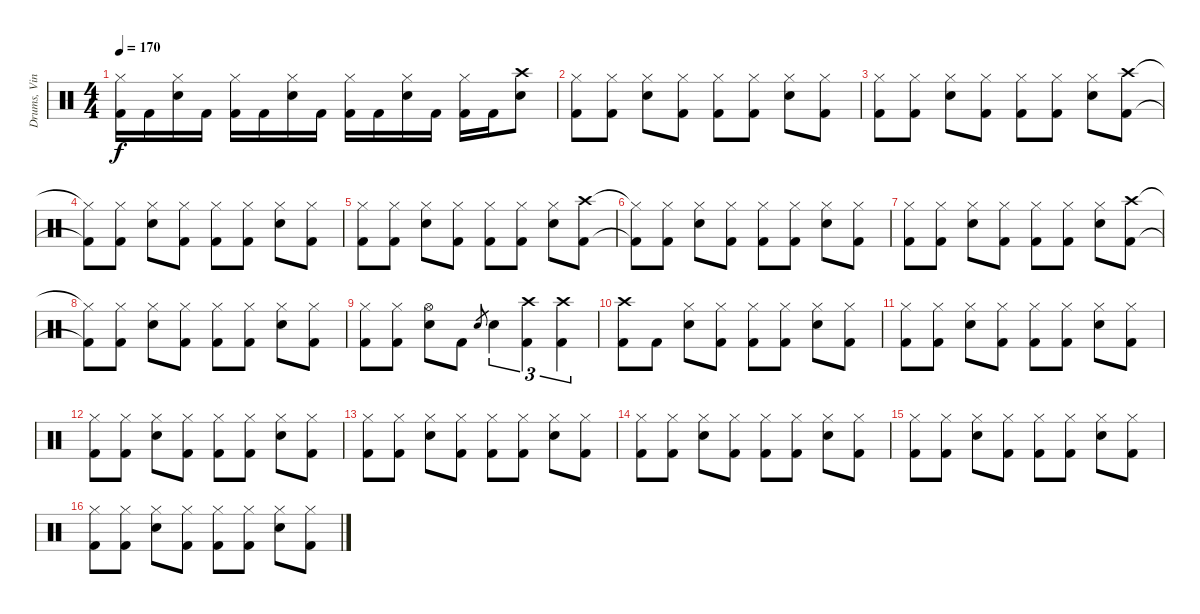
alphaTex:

\track ("Drums, Vinnie" "Drums, Vin") {instrument percussion}
\staff {score}
\articulation defaults
\ts (4 4)
\tempo 170
\clef neutral
\ks c
("Hi-Hat (closed)" "Kick (hit) 2").16{dy f} "Kick (hit) 2".16 ("Hi-Hat (closed)" "Electric Snare (hit)").16 "Kick (hit) 2".16 ("Hi-Hat (closed)" "Kick (hit) 2").16 "Kick (hit) 2".16 ("Hi-Hat (closed)" "Electric Snare (hit)").16 "Kick (hit) 2".16 ("Hi-Hat (closed)" "Kick (hit) 2").16 "Kick (hit) 2".16 ("Hi-Hat (closed)" "Electric Snare (hit)").16 "Kick (hit) 2".16 ("Hi-Hat (closed)" "Kick (hit) 2").16 "Kick (hit) 2".16 ("Crash high (hit)" "Electric Snare (hit)").8 |
("Hi-Hat (closed)" "Kick (hit) 2").8 ("Hi-Hat (closed)" "Kick (hit) 2").8 ("Hi-Hat (closed)" "Electric Snare (hit)").8 ("Hi-Hat (closed)" "Kick (hit) 2").8 ("Hi-Hat (closed)" "Kick (hit) 2").8 ("Hi-Hat (closed)" "Kick (hit) 2").8 ("Hi-Hat (closed)" "Electric Snare (hit)").8 ("Hi-Hat (closed)" "Kick (hit) 2").8 |
("Hi-Hat (closed)" "Kick (hit) 2").8 ("Hi-Hat (closed)" "Kick (hit) 2").8 ("Hi-Hat (closed)" "Electric Snare (hit)").8 ("Hi-Hat (closed)" "Kick (hit) 2").8 ("Hi-Hat (closed)" "Kick (hit) 2").8 ("Hi-Hat (closed)" "Kick (hit) 2").8 ("Hi-Hat (closed)" "Electric Snare (hit)").8 ("Crash high (hit)" "Kick (hit) 2").8 |
("Hi-Hat (closed)"{t} "Kick (hit) 2"{t}).8 ("Hi-Hat (closed)" "Kick (hit) 2").8 ("Hi-Hat (closed)" "Electric Snare (hit)").8 ("Hi-Hat (closed)" "Kick (hit) 2").8 ("Hi-Hat (closed)" "Kick (hit) 2").8 ("Hi-Hat (closed)" "Kick (hit) 2").8 ("Hi-Hat (closed)" "Electric Snare (hit)").8 ("Hi-Hat (closed)" "Kick (hit) 2").8 |
("Hi-Hat (closed)" "Kick (hit) 2").8 ("Hi-Hat (closed)" "Kick (hit) 2").8 ("Hi-Hat (closed)" "Electric Snare (hit)").8 ("Hi-Hat (closed)" "Kick (hit) 2").8 ("Hi-Hat (closed)" "Kick (hit) 2").8 ("Hi-Hat (closed)" "Kick (hit) 2").8 ("Hi-Hat (closed)" "Electric Snare (hit)").8 ("Crash high (hit)" "Kick (hit) 2").8 |
("Hi-Hat (closed)"{t} "Kick (hit) 2"{t}).8 ("Hi-Hat (closed)" "Kick (hit) 2").8 ("Hi-Hat (closed)" "Electric Snare (hit)").8 ("Hi-Hat (closed)" "Kick (hit) 2").8 ("Hi-Hat (closed)" "Kick (hit) 2").8 ("Hi-Hat (closed)" "Kick (hit) 2").8 ("Hi-Hat (closed)" "Electric Snare (hit)").8 ("Hi-Hat (closed)" "Kick (hit) 2").8 |
("Hi-Hat (closed)" "Kick (hit) 2").8 ("Hi-Hat (closed)" "Kick (hit) 2").8 ("Hi-Hat (closed)" "Electric Snare (hit)").8 ("Hi-Hat (closed)" "Kick (hit) 2").8 ("Hi-Hat (closed)" "Kick (hit) 2").8 ("Hi-Hat (closed)" "Kick (hit) 2").8 ("Hi-Hat (closed)" "Electric Snare (hit)").8 ("Crash high (hit)" "Kick (hit) 2").8 |
("Hi-Hat (closed)"{t} "Kick (hit) 2"{t}).8 ("Hi-Hat (closed)" "Kick (hit) 2").8 ("Hi-Hat (closed)" "Electric Snare (hit)").8 ("Hi-Hat (closed)" "Kick (hit) 2").8 ("Hi-Hat (closed)" "Kick (hit) 2").8 ("Hi-Hat (closed)" "Kick (hit) 2").8 ("Hi-Hat (closed)" "Electric Snare (hit)").8 ("Hi-Hat (closed)" "Kick (hit) 2").8 |
("Hi-Hat (closed)" "Kick (hit) 2").8 ("Hi-Hat (closed)" "Kick (hit) 2").8 ("Hi-Hat (open)" "Electric Snare (hit)").8 "Kick (hit) 2".8 "Electric Snare (hit)".8{gr} "Electric Snare (hit)".4{tu (3 2)} ("Crash high (hit)" "Kick (hit) 2").4{tu (3 2)} ("Crash high (hit)" "Kick (hit) 2").4{tu (3 2)} |
("Crash high (hit)" "Kick (hit) 2").8 "Kick (hit) 2".8 ("Hi-Hat (closed)" "Electric Snare (hit)").8 ("Hi-Hat (closed)" "Kick (hit) 2").8 ("Hi-Hat (closed)" "Kick (hit) 2").8 ("Hi-Hat (closed)" "Kick (hit) 2").8 ("Hi-Hat (closed)" "Electric Snare (hit)").8 ("Hi-Hat (closed)" "Kick (hit) 2").8 |
("Hi-Hat (closed)" "Kick (hit) 2").8 ("Hi-Hat (closed)" "Kick (hit) 2").8 ("Hi-Hat (closed)" "Electric Snare (hit)").8 ("Hi-Hat (closed)" "Kick (hit) 2").8 ("Hi-Hat (closed)" "Kick (hit) 2").8 ("Hi-Hat (closed)" "Kick (hit) 2").8 ("Hi-Hat (closed)" "Electric Snare (hit)").8 ("Hi-Hat (closed)" "Kick (hit) 2").8 |
("Hi-Hat (closed)" "Kick (hit) 2").8 ("Hi-Hat (closed)" "Kick (hit) 2").8 ("Hi-Hat (closed)" "Electric Snare (hit)").8 ("Hi-Hat (closed)" "Kick (hit) 2").8 ("Hi-Hat (closed)" "Kick (hit) 2").8 ("Hi-Hat (closed)" "Kick (hit) 2").8 ("Hi-Hat (closed)" "Electric Snare (hit)").8 ("Hi-Hat (closed)" "Kick (hit) 2").8 |
("Hi-Hat (closed)" "Kick (hit) 2").8 ("Hi-Hat (closed)" "Kick (hit) 2").8 ("Hi-Hat (closed)" "Electric Snare (hit)").8 ("Hi-Hat (closed)" "Kick (hit) 2").8 ("Hi-Hat (closed)" "Kick (hit) 2").8 ("Hi-Hat (closed)" "Kick (hit) 2").8 ("Hi-Hat (closed)" "Electric Snare (hit)").8 ("Hi-Hat (closed)" "Kick (hit) 2").8 |
("Hi-Hat (closed)" "Kick (hit) 2").8 ("Hi-Hat (closed)" "Kick (hit) 2").8 ("Hi-Hat (closed)" "Electric Snare (hit)").8 ("Hi-Hat (closed)" "Kick (hit) 2").8 ("Hi-Hat (closed)" "Kick (hit) 2").8 ("Hi-Hat (closed)" "Kick (hit) 2").8 ("Hi-Hat (closed)" "Electric Snare (hit)").8 ("Hi-Hat (closed)" "Kick (hit) 2").8 |
("Hi-Hat (closed)" "Kick (hit) 2").8 ("Hi-Hat (closed)" "Kick (hit) 2").8 ("Hi-Hat (closed)" "Electric Snare (hit)").8 ("Hi-Hat (closed)" "Kick (hit) 2").8 ("Hi-Hat (closed)" "Kick (hit) 2").8 ("Hi-Hat (closed)" "Kick (hit) 2").8 ("Hi-Hat (closed)" "Electric Snare (hit)").8 ("Hi-Hat (closed)" "Kick (hit) 2").8 |
("Hi-Hat (closed)" "Kick (hit) 2").8 ("Hi-Hat (closed)" "Kick (hit) 2").8 ("Hi-Hat (closed)" "Electric Snare (hit)").8 ("Hi-Hat (closed)" "Kick (hit) 2").8 ("Hi-Hat (closed)" "Kick (hit) 2").8 ("Hi-Hat (closed)" "Kick (hit) 2").8 ("Hi-Hat (closed)" "Electric Snare (hit)").8 ("Hi-Hat (closed)" "Kick (hit) 2").8
